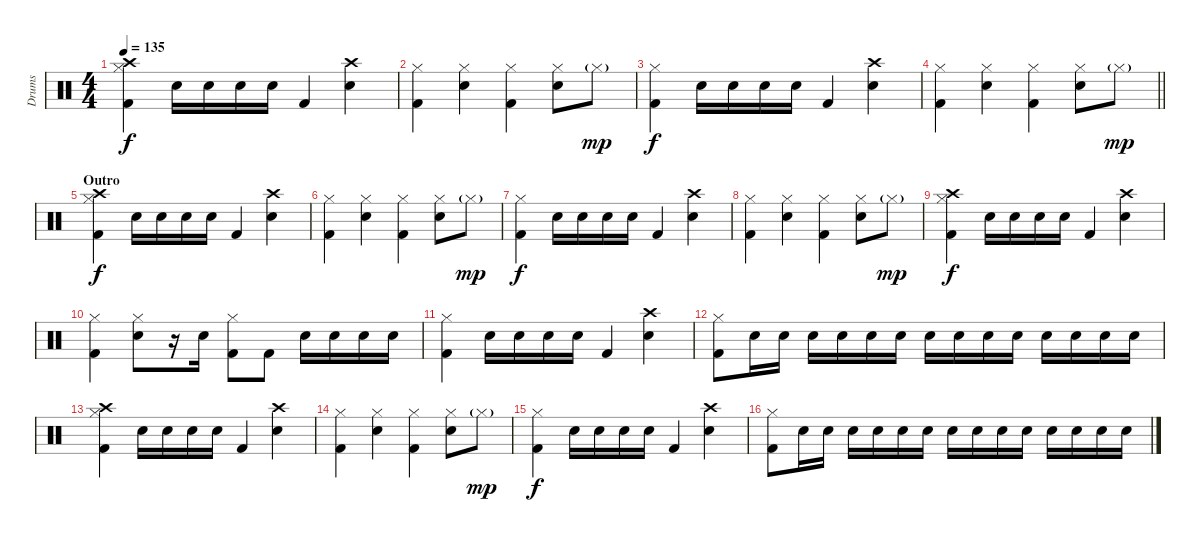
\track ("Drums" "Drums") {instrument percussion}
\staff {score}
\articulation defaults
\ts (4 4)
\tempo 135
\clef neutral
\ks c
("Hi-Hat (closed)" "Crash high (hit)" "Kick (hit) 2").4{dy f} "Electric Snare (hit)".16 "Electric Snare (hit)".16 "Electric Snare (hit)".16 "Electric Snare (hit)".16 "Kick (hit) 2".4 ("Crash high (hit)" "Electric Snare (hit)").4 |
("Hi-Hat (closed)" "Kick (hit) 2").4 ("Hi-Hat (closed)" "Electric Snare (hit)").4 ("Hi-Hat (closed)" "Kick (hit) 2").4 ("Hi-Hat (closed)" "Electric Snare (hit)").8 "Hi-Hat (closed)"{g}.8{dy mp} |
("Hi-Hat (closed)" "Kick (hit) 2").4{dy f} "Electric Snare (hit)".16 "Electric Snare (hit)".16 "Electric Snare (hit)".16 "Electric Snare (hit)".16 "Kick (hit) 2".4 ("Crash high (hit)" "Electric Snare (hit)").4 |
\barLineRight lightlight
("Hi-Hat (closed)" "Kick (hit) 2").4 ("Hi-Hat (closed)" "Electric Snare (hit)").4 ("Hi-Hat (closed)" "Kick (hit) 2").4 ("Hi-Hat (closed)" "Electric Snare (hit)").8 "Hi-Hat (closed)"{g}.8{dy mp} |
\section ("" "Outro")
("Hi-Hat (closed)" "Crash high (hit)" "Kick (hit) 2").4{dy f} "Electric Snare (hit)".16 "Electric Snare (hit)".16 "Electric Snare (hit)".16 "Electric Snare (hit)".16 "Kick (hit) 2".4 ("Crash high (hit)" "Electric Snare (hit)").4 |
("Hi-Hat (closed)" "Kick (hit) 2").4 ("Hi-Hat (closed)" "Electric Snare (hit)").4 ("Hi-Hat (closed)" "Kick (hit) 2").4 ("Hi-Hat (closed)" "Electric Snare (hit)").8 "Hi-Hat (closed)"{g}.8{dy mp} |
("Hi-Hat (closed)" "Kick (hit) 2").4{dy f} "Electric Snare (hit)".16 "Electric Snare (hit)".16 "Electric Snare (hit)".16 "Electric Snare (hit)".16 "Kick (hit) 2".4 ("Crash high (hit)" "Electric Snare (hit)").4 |
("Hi-Hat (closed)" "Kick (hit) 2").4 ("Hi-Hat (closed)" "Electric Snare (hit)").4 ("Hi-Hat (closed)" "Kick (hit) 2").4 ("Hi-Hat (closed)" "Electric Snare (hit)").8 "Hi-Hat (closed)"{g}.8{dy mp} |
("Hi-Hat (closed)" "Crash high (hit)" "Kick (hit) 2").4{dy f} "Electric Snare (hit)".16 "Electric Snare (hit)".16 "Electric Snare (hit)".16 "Electric Snare (hit)".16 "Kick (hit) 2".4 ("Crash high (hit)" "Electric Snare (hit)").4 |
("Hi-Hat (closed)" "Kick (hit) 2").4 ("Hi-Hat (closed)" "Electric Snare (hit)").8 r.16 "Electric Snare (hit)".16 ("Hi-Hat (closed)" "Kick (hit) 2").8 "Kick (hit) 2".8 "Electric Snare (hit)".16 "Electric Snare (hit)".16 "Electric Snare (hit)".16 "Electric Snare (hit)".16 |
("Hi-Hat (closed)" "Kick (hit) 2").4 "Electric Snare (hit)".16 "Electric Snare (hit)".16 "Electric Snare (hit)".16 "Electric Snare (hit)".16 "Kick (hit) 2".4 ("Crash high (hit)" "Electric Snare (hit)").4 |
("Hi-Hat (closed)" "Kick (hit) 2").8 "Electric Snare (hit)".16 "Electric Snare (hit)".16 "Electric Snare (hit)".16 "Electric Snare (hit)".16 "Electric Snare (hit)".16 "Electric Snare (hit)".16 "Electric Snare (hit)".16 "Electric Snare (hit)".16 "Electric Snare (hit)".16 "Electric Snare (hit)".16 "Electric Snare (hit)".16 "Electric Snare (hit)".16 "Electric Snare (hit)".16 "Electric Snare (hit)".16 |
("Hi-Hat (closed)" "Crash high (hit)" "Kick (hit) 2").4 "Electric Snare (hit)".16 "Electric Snare (hit)".16 "Electric Snare (hit)".16 "Electric Snare (hit)".16 "Kick (hit) 2".4 ("Crash high (hit)" "Electric Snare (hit)").4 |
("Hi-Hat (closed)" "Kick (hit) 2").4 ("Hi-Hat (closed)" "Electric Snare (hit)").4 ("Hi-Hat (closed)" "Kick (hit) 2").4 ("Hi-Hat (closed)" "Electric Snare (hit)").8 "Hi-Hat (closed)"{g}.8{dy mp} |
("Hi-Hat (closed)" "Kick (hit) 2").4{dy f} "Electric Snare (hit)".16 "Electric Snare (hit)".16 "Electric Snare (hit)".16 "Electric Snare (hit)".16 "Kick (hit) 2".4 ("Crash high (hit)" "Electric Snare (hit)").4 |
("Hi-Hat (closed)" "Kick (hit) 2").8 "Electric Snare (hit)".16 "Electric Snare (hit)".16 "Electric Snare (hit)".16 "Electric Snare (hit)".16 "Electric Snare (hit)".16 "Electric Snare (hit)".16 "Electric Snare (hit)".16 "Electric Snare (hit)".16 "Electric Snare (hit)".16 "Electric Snare (hit)".16 "Electric Snare (hit)".16 "Electric Snare (hit)".16 "Electric Snare (hit)".16 "Electric Snare (hit)".16
